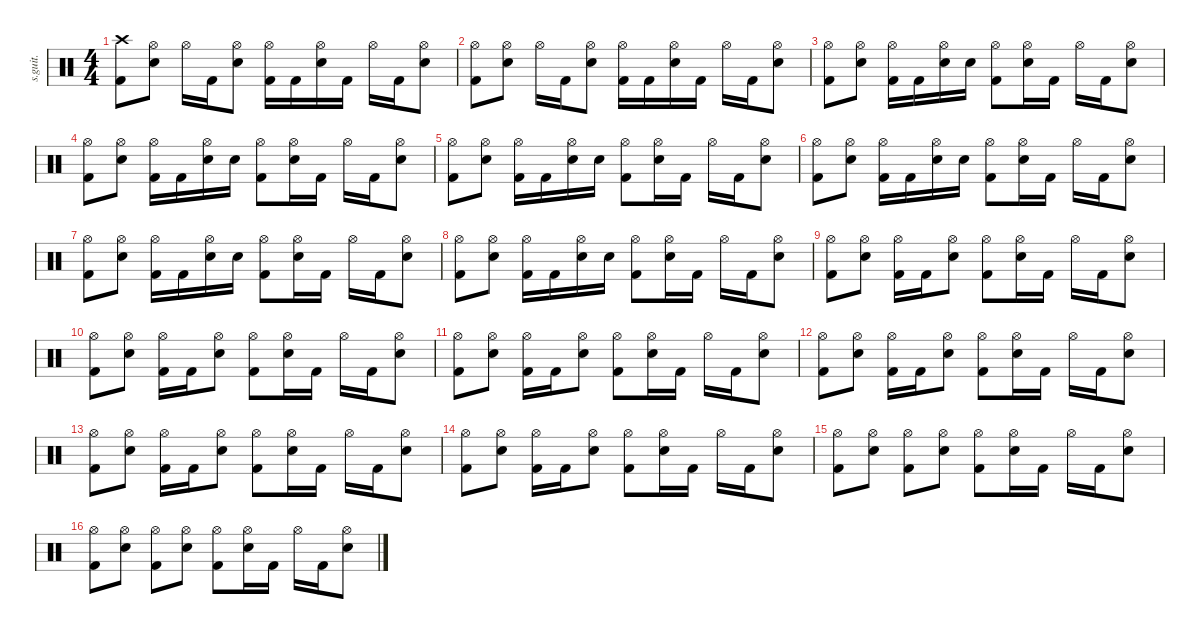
\defaultSystemsLayout 4
\hideDynamics
\bracketExtendMode nobrackets
\track ("" "s.guit.") {instrument percussion}
\staff {score}
\articulation defaults
\ts (4 4)
\tempo (150 hide)
\clef neutral
\ks c
("Crash high (hit)" "Kick (hit) 2").8{dy mf} ("Hi-Hat (open)" "Snare (hit) 2").8 "Hi-Hat (open)".16 "Kick (hit) 2".16 ("Hi-Hat (open)" "Snare (hit) 2").8 ("Hi-Hat (open)" "Kick (hit) 2").16 "Kick (hit) 2".16 ("Hi-Hat (open)" "Snare (hit) 2").16 "Kick (hit) 2".16 "Hi-Hat (open)".16 "Kick (hit) 2".16 ("Hi-Hat (open)" "Snare (hit) 2").8 |
("Hi-Hat (open)" "Kick (hit) 2").8 ("Hi-Hat (open)" "Snare (hit) 2").8 "Hi-Hat (open)".16 "Kick (hit) 2".16 ("Hi-Hat (open)" "Snare (hit) 2").8 ("Hi-Hat (open)" "Kick (hit) 2").16 "Kick (hit) 2".16 ("Hi-Hat (open)" "Snare (hit) 2").16 "Kick (hit) 2".16 "Hi-Hat (open)".16 "Kick (hit) 2".16 ("Hi-Hat (open)" "Snare (hit) 2").8 |
("Hi-Hat (open)" "Kick (hit) 2").8 ("Hi-Hat (open)" "Snare (hit) 2").8 ("Hi-Hat (open)" "Kick (hit) 2").16 "Kick (hit) 2".16 ("Hi-Hat (open)" "Snare (hit) 2").16 "Snare (hit) 2".16 ("Hi-Hat (open)" "Kick (hit) 2").8 ("Hi-Hat (open)" "Snare (hit) 2").16 "Kick (hit) 2".16 "Hi-Hat (open)".16 "Kick (hit) 2".16 ("Hi-Hat (open)" "Snare (hit) 2").8 |
("Hi-Hat (open)" "Kick (hit) 2").8 ("Hi-Hat (open)" "Snare (hit) 2").8 ("Hi-Hat (open)" "Kick (hit) 2").16 "Kick (hit) 2".16 ("Hi-Hat (open)" "Snare (hit) 2").16 "Snare (hit) 2".16 ("Hi-Hat (open)" "Kick (hit) 2").8 ("Hi-Hat (open)" "Snare (hit) 2").16 "Kick (hit) 2".16 "Hi-Hat (open)".16 "Kick (hit) 2".16 ("Hi-Hat (open)" "Snare (hit) 2").8 |
("Hi-Hat (open)" "Kick (hit) 2").8 ("Hi-Hat (open)" "Snare (hit) 2").8 ("Hi-Hat (open)" "Kick (hit) 2").16 "Kick (hit) 2".16 ("Hi-Hat (open)" "Snare (hit) 2").16 "Snare (hit) 2".16 ("Hi-Hat (open)" "Kick (hit) 2").8 ("Hi-Hat (open)" "Snare (hit) 2").16 "Kick (hit) 2".16 "Hi-Hat (open)".16 "Kick (hit) 2".16 ("Hi-Hat (open)" "Snare (hit) 2").8 |
("Hi-Hat (open)" "Kick (hit) 2").8 ("Hi-Hat (open)" "Snare (hit) 2").8 ("Hi-Hat (open)" "Kick (hit) 2").16 "Kick (hit) 2".16 ("Hi-Hat (open)" "Snare (hit) 2").16 "Snare (hit) 2".16 ("Hi-Hat (open)" "Kick (hit) 2").8 ("Hi-Hat (open)" "Snare (hit) 2").16 "Kick (hit) 2".16 "Hi-Hat (open)".16 "Kick (hit) 2".16 ("Hi-Hat (open)" "Snare (hit) 2").8 |
("Hi-Hat (open)" "Kick (hit) 2").8 ("Hi-Hat (open)" "Snare (hit) 2").8 ("Hi-Hat (open)" "Kick (hit) 2").16 "Kick (hit) 2".16 ("Hi-Hat (open)" "Snare (hit) 2").16 "Snare (hit) 2".16 ("Hi-Hat (open)" "Kick (hit) 2").8 ("Hi-Hat (open)" "Snare (hit) 2").16 "Kick (hit) 2".16 "Hi-Hat (open)".16 "Kick (hit) 2".16 ("Hi-Hat (open)" "Snare (hit) 2").8 |
("Hi-Hat (open)" "Kick (hit) 2").8 ("Hi-Hat (open)" "Snare (hit) 2").8 ("Hi-Hat (open)" "Kick (hit) 2").16 "Kick (hit) 2".16 ("Hi-Hat (open)" "Snare (hit) 2").16 "Snare (hit) 2".16 ("Hi-Hat (open)" "Kick (hit) 2").8 ("Hi-Hat (open)" "Snare (hit) 2").16 "Kick (hit) 2".16 "Hi-Hat (open)".16 "Kick (hit) 2".16 ("Hi-Hat (open)" "Snare (hit) 2").8 |
("Hi-Hat (open)" "Kick (hit) 2").8 ("Hi-Hat (open)" "Snare (hit) 2").8 ("Hi-Hat (open)" "Kick (hit) 2").16 "Kick (hit) 2".16 ("Hi-Hat (open)" "Snare (hit) 2").8 ("Hi-Hat (open)" "Kick (hit) 2").8 ("Hi-Hat (open)" "Snare (hit) 2").16 "Kick (hit) 2".16 "Hi-Hat (open)".16 "Kick (hit) 2".16 ("Hi-Hat (open)" "Snare (hit) 2").8 |
("Hi-Hat (open)" "Kick (hit) 2").8 ("Hi-Hat (open)" "Snare (hit) 2").8 ("Hi-Hat (open)" "Kick (hit) 2").16 "Kick (hit) 2".16 ("Hi-Hat (open)" "Snare (hit) 2").8 ("Hi-Hat (open)" "Kick (hit) 2").8 ("Hi-Hat (open)" "Snare (hit) 2").16 "Kick (hit) 2".16 "Hi-Hat (open)".16 "Kick (hit) 2".16 ("Hi-Hat (open)" "Snare (hit) 2").8 |
("Hi-Hat (open)" "Kick (hit) 2").8 ("Hi-Hat (open)" "Snare (hit) 2").8 ("Hi-Hat (open)" "Kick (hit) 2").16 "Kick (hit) 2".16 ("Hi-Hat (open)" "Snare (hit) 2").8 ("Hi-Hat (open)" "Kick (hit) 2").8 ("Hi-Hat (open)" "Snare (hit) 2").16 "Kick (hit) 2".16 "Hi-Hat (open)".16 "Kick (hit) 2".16 ("Hi-Hat (open)" "Snare (hit) 2").8 |
("Hi-Hat (open)" "Kick (hit) 2").8 ("Hi-Hat (open)" "Snare (hit) 2").8 ("Hi-Hat (open)" "Kick (hit) 2").16 "Kick (hit) 2".16 ("Hi-Hat (open)" "Snare (hit) 2").8 ("Hi-Hat (open)" "Kick (hit) 2").8 ("Hi-Hat (open)" "Snare (hit) 2").16 "Kick (hit) 2".16 "Hi-Hat (open)".16 "Kick (hit) 2".16 ("Hi-Hat (open)" "Snare (hit) 2").8 |
("Hi-Hat (open)" "Kick (hit) 2").8 ("Hi-Hat (open)" "Snare (hit) 2").8 ("Hi-Hat (open)" "Kick (hit) 2").16 "Kick (hit) 2".16 ("Hi-Hat (open)" "Snare (hit) 2").8 ("Hi-Hat (open)" "Kick (hit) 2").8 ("Hi-Hat (open)" "Snare (hit) 2").16 "Kick (hit) 2".16 "Hi-Hat (open)".16 "Kick (hit) 2".16 ("Hi-Hat (open)" "Snare (hit) 2").8 |
("Hi-Hat (open)" "Kick (hit) 2").8 ("Hi-Hat (open)" "Snare (hit) 2").8 ("Hi-Hat (open)" "Kick (hit) 2").16 "Kick (hit) 2".16 ("Hi-Hat (open)" "Snare (hit) 2").8 ("Hi-Hat (open)" "Kick (hit) 2").8 ("Hi-Hat (open)" "Snare (hit) 2").16 "Kick (hit) 2".16 "Hi-Hat (open)".16 "Kick (hit) 2".16 ("Hi-Hat (open)" "Snare (hit) 2").8 |
("Hi-Hat (open)" "Kick (hit) 2").8 ("Hi-Hat (open)" "Snare (hit) 2").8 ("Hi-Hat (open)" "Kick (hit) 2").8 ("Hi-Hat (open)" "Snare (hit) 2").8 ("Hi-Hat (open)" "Kick (hit) 2").8 ("Hi-Hat (open)" "Snare (hit) 2").16 "Kick (hit) 2".16 "Hi-Hat (open)".16 "Kick (hit) 2".16 ("Hi-Hat (open)" "Snare (hit) 2").8 |
("Hi-Hat (open)" "Kick (hit) 2").8 ("Hi-Hat (open)" "Snare (hit) 2").8 ("Hi-Hat (open)" "Kick (hit) 2").8 ("Hi-Hat (open)" "Snare (hit) 2").8 ("Hi-Hat (open)" "Kick (hit) 2").8 ("Hi-Hat (open)" "Snare (hit) 2").16 "Kick (hit) 2".16 "Hi-Hat (open)".16 "Kick (hit) 2".16 ("Hi-Hat (open)" "Snare (hit) 2").8
